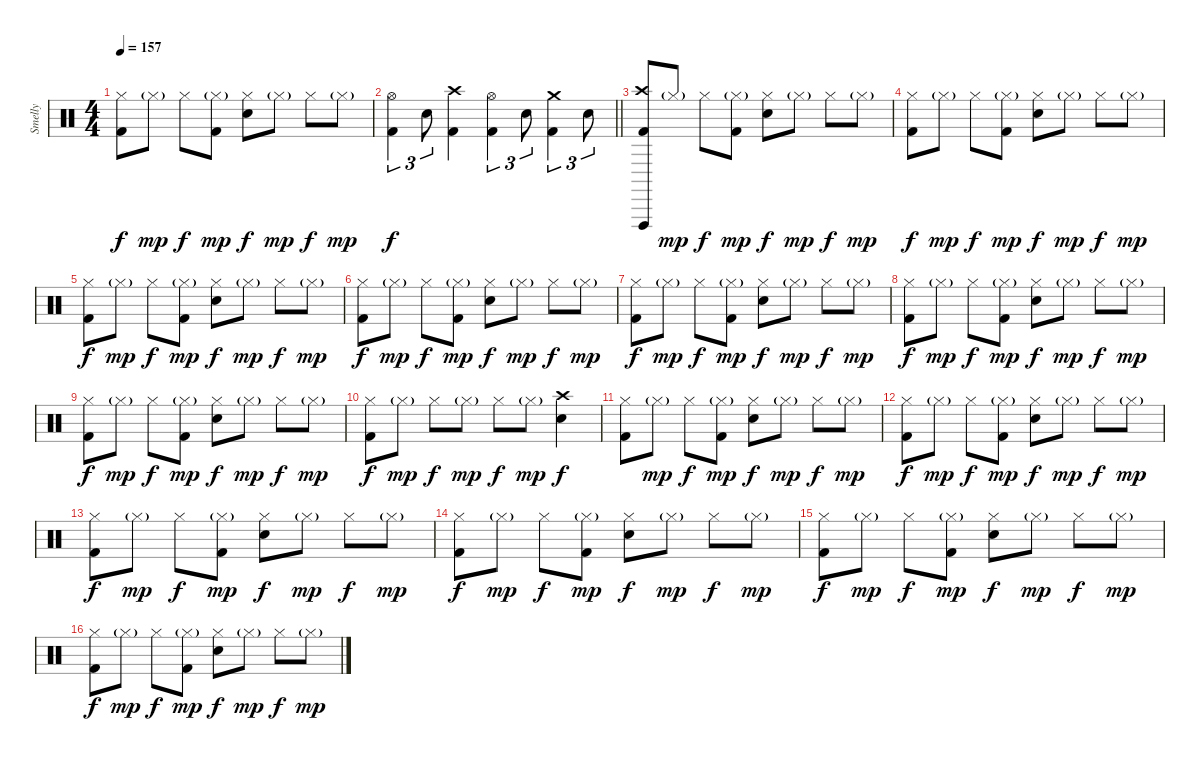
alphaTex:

\track ("Smelly" "Smelly") {instrument percussion}
\staff {score}
\articulation defaults
\ts (4 4)
\tempo 157
\clef neutral
\ks c
("Hi-Hat (closed)" "Kick (hit) 2").8{dy f} "Hi-Hat (closed)"{g}.8{dy mp} "Hi-Hat (closed)".8{dy f} ("Hi-Hat (closed)"{g} "Kick (hit) 2").8{dy mp} ("Hi-Hat (closed)" "Electric Snare (hit)").8{dy f} "Hi-Hat (closed)"{g}.8{dy mp} "Hi-Hat (closed)".8{dy f} "Hi-Hat (closed)"{g}.8{dy mp} |
\barLineRight lightlight
("Hi-Hat (open)" "Kick (hit) 2").4{tu (3 2) dy f} "Electric Snare (hit)".8{tu (3 2)} ("Crash high (hit)" "Kick (hit) 2").4 ("Hi-Hat (open)" "Kick (hit) 2").4{tu (3 2)} "Electric Snare (hit)".8{tu (3 2)} ("Crash medium (hit)" "Kick (hit) 2").4{tu (3 2)} "Electric Snare (hit)".8{tu (3 2)} |
\section ("" "")
("Crash high (hit)" "Vibraslap (hit)" "Kick (hit) 2").8 "Hi-Hat (closed)"{g}.8{dy mp} "Hi-Hat (closed)".8{dy f} ("Hi-Hat (closed)"{g} "Kick (hit) 2").8{dy mp} ("Hi-Hat (closed)" "Electric Snare (hit)").8{dy f} "Hi-Hat (closed)"{g}.8{dy mp} "Hi-Hat (closed)".8{dy f} "Hi-Hat (closed)"{g}.8{dy mp} |
("Hi-Hat (closed)" "Kick (hit) 2").8{dy f} "Hi-Hat (closed)"{g}.8{dy mp} "Hi-Hat (closed)".8{dy f} ("Hi-Hat (closed)"{g} "Kick (hit) 2").8{dy mp} ("Hi-Hat (closed)" "Electric Snare (hit)").8{dy f} "Hi-Hat (closed)"{g}.8{dy mp} "Hi-Hat (closed)".8{dy f} "Hi-Hat (closed)"{g}.8{dy mp} |
("Hi-Hat (closed)" "Kick (hit) 2").8{dy f} "Hi-Hat (closed)"{g}.8{dy mp} "Hi-Hat (closed)".8{dy f} ("Hi-Hat (closed)"{g} "Kick (hit) 2").8{dy mp} ("Hi-Hat (closed)" "Electric Snare (hit)").8{dy f} "Hi-Hat (closed)"{g}.8{dy mp} "Hi-Hat (closed)".8{dy f} "Hi-Hat (closed)"{g}.8{dy mp} |
("Hi-Hat (closed)" "Kick (hit) 2").8{dy f} "Hi-Hat (closed)"{g}.8{dy mp} "Hi-Hat (closed)".8{dy f} ("Hi-Hat (closed)"{g} "Kick (hit) 2").8{dy mp} ("Hi-Hat (closed)" "Electric Snare (hit)").8{dy f} "Hi-Hat (closed)"{g}.8{dy mp} "Hi-Hat (closed)".8{dy f} "Hi-Hat (closed)"{g}.8{dy mp} |
("Hi-Hat (closed)" "Kick (hit) 2").8{dy f} "Hi-Hat (closed)"{g}.8{dy mp} "Hi-Hat (closed)".8{dy f} ("Hi-Hat (closed)"{g} "Kick (hit) 2").8{dy mp} ("Hi-Hat (closed)" "Electric Snare (hit)").8{dy f} "Hi-Hat (closed)"{g}.8{dy mp} "Hi-Hat (closed)".8{dy f} "Hi-Hat (closed)"{g}.8{dy mp} |
("Hi-Hat (closed)" "Kick (hit) 2").8{dy f} "Hi-Hat (closed)"{g}.8{dy mp} "Hi-Hat (closed)".8{dy f} ("Hi-Hat (closed)"{g} "Kick (hit) 2").8{dy mp} ("Hi-Hat (closed)" "Electric Snare (hit)").8{dy f} "Hi-Hat (closed)"{g}.8{dy mp} "Hi-Hat (closed)".8{dy f} "Hi-Hat (closed)"{g}.8{dy mp} |
("Hi-Hat (closed)" "Kick (hit) 2").8{dy f} "Hi-Hat (closed)"{g}.8{dy mp} "Hi-Hat (closed)".8{dy f} ("Hi-Hat (closed)"{g} "Kick (hit) 2").8{dy mp} ("Hi-Hat (closed)" "Electric Snare (hit)").8{dy f} "Hi-Hat (closed)"{g}.8{dy mp} "Hi-Hat (closed)".8{dy f} "Hi-Hat (closed)"{g}.8{dy mp} |
("Hi-Hat (closed)" "Kick (hit) 2").8{dy f} "Hi-Hat (closed)"{g}.8{dy mp} "Hi-Hat (closed)".8{dy f} "Hi-Hat (closed)"{g}.8{dy mp} "Hi-Hat (closed)".8{dy f} "Hi-Hat (closed)"{g}.8{dy mp} ("Crash high (hit)" "Electric Snare (hit)").4{dy f} |
("Hi-Hat (closed)" "Kick (hit) 2").8 "Hi-Hat (closed)"{g}.8{dy mp} "Hi-Hat (closed)".8{dy f} ("Hi-Hat (closed)"{g} "Kick (hit) 2").8{dy mp} ("Hi-Hat (closed)" "Electric Snare (hit)").8{dy f} "Hi-Hat (closed)"{g}.8{dy mp} "Hi-Hat (closed)".8{dy f} "Hi-Hat (closed)"{g}.8{dy mp} |
("Hi-Hat (closed)" "Kick (hit) 2").8{dy f} "Hi-Hat (closed)"{g}.8{dy mp} "Hi-Hat (closed)".8{dy f} ("Hi-Hat (closed)"{g} "Kick (hit) 2").8{dy mp} ("Hi-Hat (closed)" "Electric Snare (hit)").8{dy f} "Hi-Hat (closed)"{g}.8{dy mp} "Hi-Hat (closed)".8{dy f} "Hi-Hat (closed)"{g}.8{dy mp} |
("Hi-Hat (closed)" "Kick (hit) 2").8{dy f} "Hi-Hat (closed)"{g}.8{dy mp} "Hi-Hat (closed)".8{dy f} ("Hi-Hat (closed)"{g} "Kick (hit) 2").8{dy mp} ("Hi-Hat (closed)" "Electric Snare (hit)").8{dy f} "Hi-Hat (closed)"{g}.8{dy mp} "Hi-Hat (closed)".8{dy f} "Hi-Hat (closed)"{g}.8{dy mp} |
("Hi-Hat (closed)" "Kick (hit) 2").8{dy f} "Hi-Hat (closed)"{g}.8{dy mp} "Hi-Hat (closed)".8{dy f} ("Hi-Hat (closed)"{g} "Kick (hit) 2").8{dy mp} ("Hi-Hat (closed)" "Electric Snare (hit)").8{dy f} "Hi-Hat (closed)"{g}.8{dy mp} "Hi-Hat (closed)".8{dy f} "Hi-Hat (closed)"{g}.8{dy mp} |
("Hi-Hat (closed)" "Kick (hit) 2").8{dy f} "Hi-Hat (closed)"{g}.8{dy mp} "Hi-Hat (closed)".8{dy f} ("Hi-Hat (closed)"{g} "Kick (hit) 2").8{dy mp} ("Hi-Hat (closed)" "Electric Snare (hit)").8{dy f} "Hi-Hat (closed)"{g}.8{dy mp} "Hi-Hat (closed)".8{dy f} "Hi-Hat (closed)"{g}.8{dy mp} |
("Hi-Hat (closed)" "Kick (hit) 2").8{dy f} "Hi-Hat (closed)"{g}.8{dy mp} "Hi-Hat (closed)".8{dy f} ("Hi-Hat (closed)"{g} "Kick (hit) 2").8{dy mp} ("Hi-Hat (closed)" "Electric Snare (hit)").8{dy f} "Hi-Hat (closed)"{g}.8{dy mp} "Hi-Hat (closed)".8{dy f} "Hi-Hat (closed)"{g}.8{dy mp}
